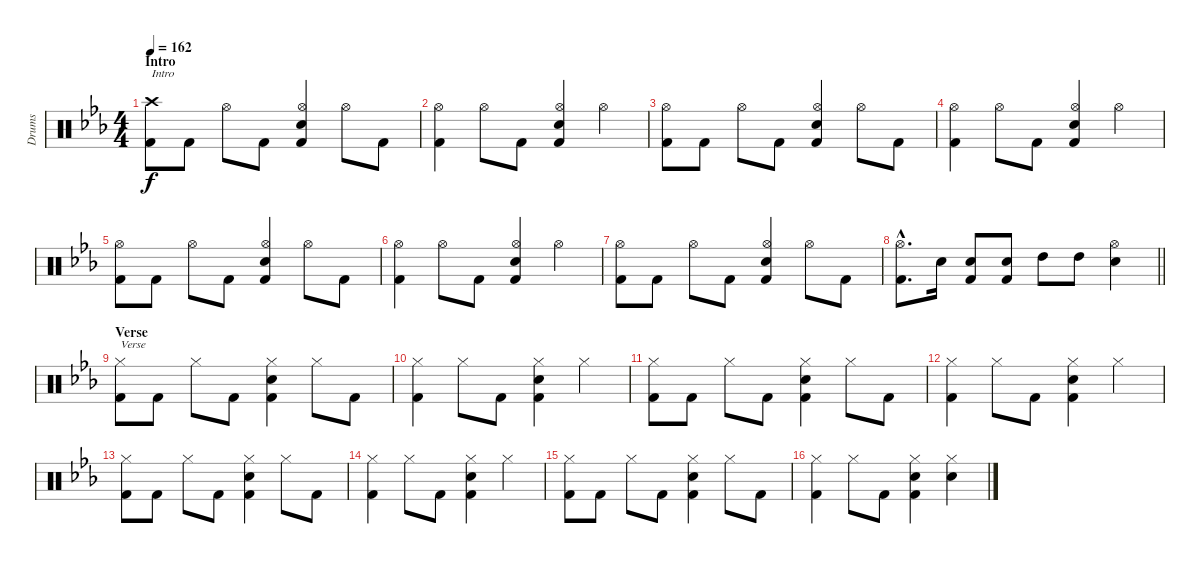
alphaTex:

\track ("Drums" "Drums") {instrument percussion}
\staff {score}
\articulation defaults
\ts (4 4)
\section ("" "Intro")
\tempo 162
\clef neutral
\ks eb
("Crash high (hit)" "Kick (hit) 2").8{txt "Intro" dy f} "Kick (hit) 2".8 "Hi-Hat (open)".8 "Kick (hit) 2".8 ("Hi-Hat (open)" "Electric Snare (hit)" "Kick (hit) 2").4 "Hi-Hat (open)".8 "Kick (hit) 2".8 |
("Hi-Hat (open)" "Kick (hit) 2").4 "Hi-Hat (open)".8 "Kick (hit) 2".8 ("Hi-Hat (open)" "Electric Snare (hit)" "Kick (hit) 2").4 "Hi-Hat (open)".4 |
("Hi-Hat (open)" "Kick (hit) 2").8 "Kick (hit) 2".8 "Hi-Hat (open)".8 "Kick (hit) 2".8 ("Hi-Hat (open)" "Electric Snare (hit)" "Kick (hit) 2").4 "Hi-Hat (open)".8 "Kick (hit) 2".8 |
("Hi-Hat (open)" "Kick (hit) 2").4 "Hi-Hat (open)".8 "Kick (hit) 2".8 ("Hi-Hat (open)" "Electric Snare (hit)" "Kick (hit) 2").4 "Hi-Hat (open)".4 |
("Hi-Hat (open)" "Kick (hit) 2").8 "Kick (hit) 2".8 "Hi-Hat (open)".8 "Kick (hit) 2".8 ("Hi-Hat (open)" "Electric Snare (hit)" "Kick (hit) 2").4 "Hi-Hat (open)".8 "Kick (hit) 2".8 |
("Hi-Hat (open)" "Kick (hit) 2").4 "Hi-Hat (open)".8 "Kick (hit) 2".8 ("Hi-Hat (open)" "Electric Snare (hit)" "Kick (hit) 2").4 "Hi-Hat (open)".4 |
("Hi-Hat (open)" "Kick (hit) 2").8 "Kick (hit) 2".8 "Hi-Hat (open)".8 "Kick (hit) 2".8 ("Hi-Hat (open)" "Electric Snare (hit)" "Kick (hit) 2").4 "Hi-Hat (open)".8 "Kick (hit) 2".8 |
\barLineRight lightlight
("Hi-Hat (open)"{hac} "Kick (hit) 2"{hac}).8{d} "Electric Snare (hit)".16 ("Electric Snare (hit)" "Kick (hit) 2").8 ("Electric Snare (hit)" "Kick (hit) 2").8 "High Tom (hit)".8 "High Tom (hit)".8 ("Hi-Hat (open)" "Electric Snare (hit)").4 |
\section ("" "Verse")
("Hi-Hat (closed)" "Kick (hit) 2").8{txt "Verse"} "Kick (hit) 2".8 "Hi-Hat (closed)".8 "Kick (hit) 2".8 ("Hi-Hat (closed)" "Electric Snare (hit)" "Kick (hit) 2").4 "Hi-Hat (closed)".8 "Kick (hit) 2".8 |
("Hi-Hat (closed)" "Kick (hit) 2").4 "Hi-Hat (closed)".8 "Kick (hit) 2".8 ("Hi-Hat (closed)" "Electric Snare (hit)" "Kick (hit) 2").4 "Hi-Hat (closed)".4 |
("Hi-Hat (closed)" "Kick (hit) 2").8 "Kick (hit) 2".8 "Hi-Hat (closed)".8 "Kick (hit) 2".8 ("Hi-Hat (closed)" "Electric Snare (hit)" "Kick (hit) 2").4 "Hi-Hat (closed)".8 "Kick (hit) 2".8 |
("Hi-Hat (closed)" "Kick (hit) 2").4 "Hi-Hat (closed)".8 "Kick (hit) 2".8 ("Hi-Hat (closed)" "Electric Snare (hit)" "Kick (hit) 2").4 "Hi-Hat (closed)".4 |
("Hi-Hat (closed)" "Kick (hit) 2").8 "Kick (hit) 2".8 "Hi-Hat (closed)".8 "Kick (hit) 2".8 ("Hi-Hat (closed)" "Electric Snare (hit)" "Kick (hit) 2").4 "Hi-Hat (closed)".8 "Kick (hit) 2".8 |
("Hi-Hat (closed)" "Kick (hit) 2").4 "Hi-Hat (closed)".8 "Kick (hit) 2".8 ("Hi-Hat (closed)" "Electric Snare (hit)" "Kick (hit) 2").4 "Hi-Hat (closed)".4 |
("Hi-Hat (closed)" "Kick (hit) 2").8 "Kick (hit) 2".8 "Hi-Hat (closed)".8 "Kick (hit) 2".8 ("Hi-Hat (closed)" "Electric Snare (hit)" "Kick (hit) 2").4 "Hi-Hat (closed)".8 "Kick (hit) 2".8 |
("Hi-Hat (closed)" "Kick (hit) 2").4 "Hi-Hat (closed)".8 "Kick (hit) 2".8 ("Hi-Hat (closed)" "Electric Snare (hit)" "Kick (hit) 2").4 ("Hi-Hat (closed)" "Electric Snare (hit)").4
